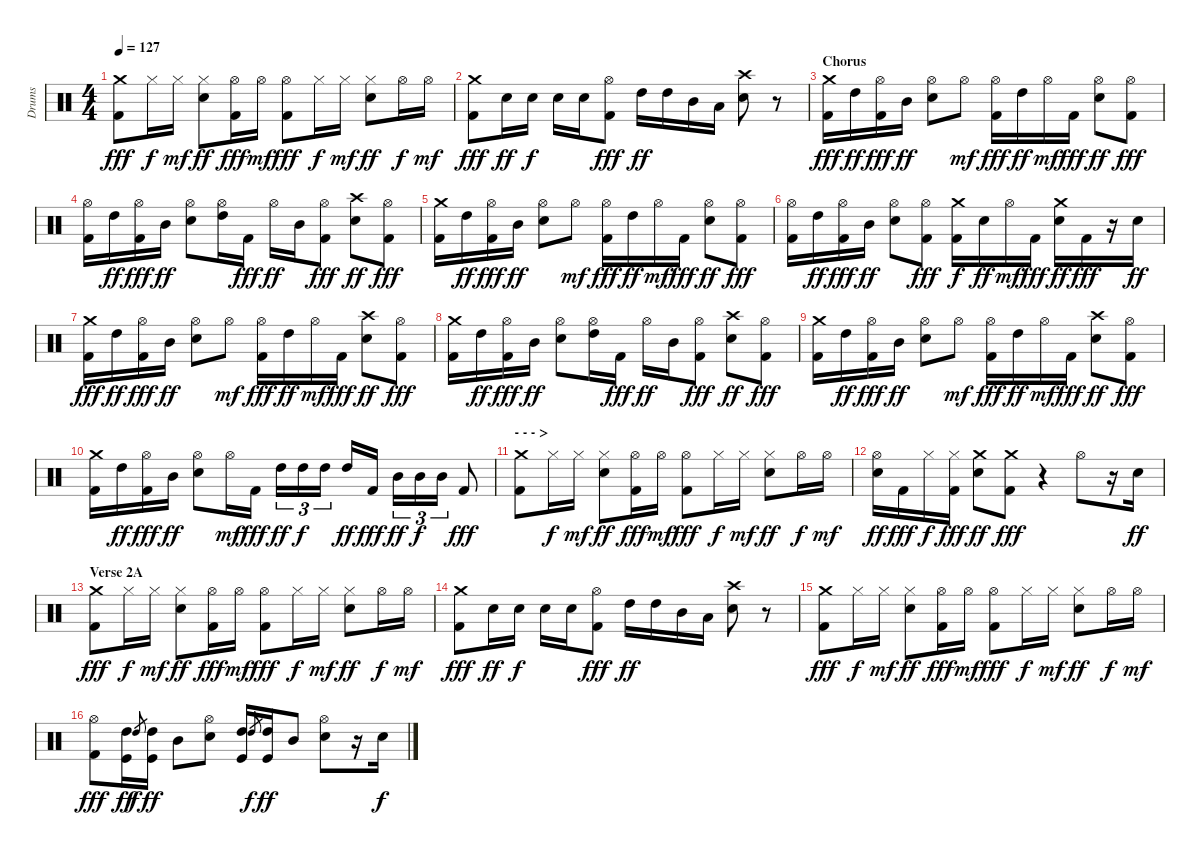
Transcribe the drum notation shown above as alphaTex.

\track ("Drums" "Drums") {instrument percussion}
\staff {score}
\articulation defaults
\ts (4 4)
\tempo 127
\clef neutral
\ks c
("Crash medium (hit)" "Kick (hit) 2").8{dy fff} "Hi-Hat (closed)".16{dy f} "Hi-Hat (closed)".16{dy mf} ("Hi-Hat (closed)" "Snare (hit) 2").8{dy ff} ("Hi-Hat (open)" "Kick (hit) 2").16{dy fff} "Hi-Hat (open)".16{dy mf} ("Hi-Hat (open)" "Kick (hit) 2").8{dy fff} "Hi-Hat (closed)".16{dy f} "Hi-Hat (closed)".16{dy mf} ("Hi-Hat (closed)" "Snare (hit) 2").8{dy ff} "Hi-Hat (open)".16{dy f} "Hi-Hat (open)".16{dy mf} |
("Crash medium (hit)" "Kick (hit) 2").8{dy fff} "Snare (hit) 2".16{dy ff} "Snare (hit) 2".16{dy f} "Snare (hit) 2".16 "Snare (hit) 2".16 ("Hi-Hat (open)" "Kick (hit) 2").8{dy fff} "High Tom (hit)".16{dy ff} "High Tom (hit)".16 "Mid Tom (hit)".16 "Low Tom (hit)".16 ("Crash high (hit)" "Snare (hit) 2").8 r.8 |
\section ("" "Chorus")
("Crash medium (hit)" "Kick (hit) 2").16{dy fff} "High Tom (hit)".16{dy ff} ("Hi-Hat (open)" "Kick (hit) 2").16{dy fff} "Mid Tom (hit)".16{dy ff} ("Hi-Hat (open)" "Snare (hit) 2").8 "Hi-Hat (open)".8{dy mf} ("Hi-Hat (open)" "Kick (hit) 2").16{dy fff} "High Tom (hit)".16{dy ff} "Hi-Hat (open)".16{dy mf} "Kick (hit) 2".16{dy fff} ("Hi-Hat (open)" "Snare (hit) 2").8{dy ff} ("Hi-Hat (open)" "Kick (hit) 2").8{dy fff} |
("Hi-Hat (open)" "Kick (hit) 2").16 "High Tom (hit)".16{dy ff} ("Hi-Hat (open)" "Kick (hit) 2").16{dy fff} "Mid Tom (hit)".16{dy ff} ("Hi-Hat (open)" "Snare (hit) 2").8 ("Hi-Hat (open)" "High Tom (hit)").16 "Kick (hit) 2".16{dy fff} "Hi-Hat (open)".16{dy ff} "Mid Tom (hit)".16 ("Hi-Hat (open)" "Kick (hit) 2").8{dy fff} ("Crash high (hit)" "Snare (hit) 2").8{dy ff} ("Hi-Hat (open)" "Kick (hit) 2").8{dy fff} |
("Crash medium (hit)" "Kick (hit) 2").16 "High Tom (hit)".16{dy ff} ("Hi-Hat (open)" "Kick (hit) 2").16{dy fff} "Mid Tom (hit)".16{dy ff} ("Hi-Hat (open)" "Snare (hit) 2").8 "Hi-Hat (open)".8{dy mf} ("Hi-Hat (open)" "Kick (hit) 2").16{dy fff} "High Tom (hit)".16{dy ff} "Hi-Hat (open)".16{dy mf} "Kick (hit) 2".16{dy fff} ("Hi-Hat (open)" "Snare (hit) 2").8{dy ff} ("Hi-Hat (open)" "Kick (hit) 2").8{dy fff} |
("Hi-Hat (open)" "Kick (hit) 2").16 "High Tom (hit)".16{dy ff} ("Hi-Hat (open)" "Kick (hit) 2").16{dy fff} "Mid Tom (hit)".16{dy ff} ("Hi-Hat (open)" "Snare (hit) 2").8 ("Hi-Hat (open)" "Kick (hit) 2").8{dy fff} ("Crash medium (hit)" "Kick (hit) 2").16{dy f} "Snare (hit) 2".16{dy ff} "Hi-Hat (open)".16{dy mf} "Kick (hit) 2".16{dy fff} ("Crash medium (hit)" "Snare (hit) 2").16{dy ff} "Kick (hit) 2".16{dy fff} r.16 "Snare (hit) 2".16{dy ff} |
("Crash medium (hit)" "Kick (hit) 2").16{dy fff} "High Tom (hit)".16{dy ff} ("Hi-Hat (open)" "Kick (hit) 2").16{dy fff} "Mid Tom (hit)".16{dy ff} ("Hi-Hat (open)" "Snare (hit) 2").8 "Hi-Hat (open)".8{dy mf} ("Hi-Hat (open)" "Kick (hit) 2").16{dy fff} "High Tom (hit)".16{dy ff} "Hi-Hat (open)".16{dy mf} "Kick (hit) 2".16{dy fff} ("Crash high (hit)" "Snare (hit) 2").8{dy ff} ("Hi-Hat (open)" "Kick (hit) 2").8{dy fff} |
("Crash medium (hit)" "Kick (hit) 2").16 "High Tom (hit)".16{dy ff} ("Hi-Hat (open)" "Kick (hit) 2").16{dy fff} "Mid Tom (hit)".16{dy ff} ("Hi-Hat (open)" "Snare (hit) 2").8 ("Hi-Hat (open)" "High Tom (hit)").16 "Kick (hit) 2".16{dy fff} "Hi-Hat (open)".16{dy ff} "Mid Tom (hit)".16 ("Hi-Hat (open)" "Kick (hit) 2").8{dy fff} ("Crash high (hit)" "Snare (hit) 2").8{dy ff} ("Hi-Hat (open)" "Kick (hit) 2").8{dy fff} |
("Crash medium (hit)" "Kick (hit) 2").16 "High Tom (hit)".16{dy ff} ("Hi-Hat (open)" "Kick (hit) 2").16{dy fff} "Mid Tom (hit)".16{dy ff} ("Hi-Hat (open)" "Snare (hit) 2").8 "Hi-Hat (open)".8{dy mf} ("Hi-Hat (open)" "Kick (hit) 2").16{dy fff} "High Tom (hit)".16{dy ff} "Hi-Hat (open)".16{dy mf} "Kick (hit) 2".16{dy fff} ("Crash high (hit)" "Snare (hit) 2").8{dy ff} ("Hi-Hat (open)" "Kick (hit) 2").8{dy fff} |
("Crash medium (hit)" "Kick (hit) 2").16 "High Tom (hit)".16{dy ff} ("Hi-Hat (open)" "Kick (hit) 2").16{dy fff} "Mid Tom (hit)".16{dy ff} ("Hi-Hat (open)" "Snare (hit) 2").8 "Hi-Hat (open)".16{dy mf} "Kick (hit) 2".16{dy fff} "High Tom (hit)".16{tu (3 2) dy ff} "High Tom (hit)".16{tu (3 2) dy f} "High Tom (hit)".16{tu (3 2)} "High Tom (hit)".16{dy ff} "Kick (hit) 2".16{dy fff} "Mid Tom (hit)".16{tu (3 2) dy ff} "Mid Tom (hit)".16{tu (3 2) dy f} "Mid Tom (hit)".16{tu (3 2)} "Kick (hit) 2".8{dy fff} |
\section ("" "- - - >")
("Crash medium (hit)" "Kick (hit) 2").8 "Hi-Hat (closed)".16{dy f} "Hi-Hat (closed)".16{dy mf} ("Hi-Hat (closed)" "Snare (hit) 2").8{dy ff} ("Hi-Hat (open)" "Kick (hit) 2").16{dy fff} "Hi-Hat (open)".16{dy mf} ("Hi-Hat (open)" "Kick (hit) 2").8{dy fff} "Hi-Hat (closed)".16{dy f} "Hi-Hat (closed)".16{dy mf} ("Hi-Hat (closed)" "Snare (hit) 2").8{dy ff} "Hi-Hat (open)".16{dy f} "Hi-Hat (open)".16{dy mf} |
("Hi-Hat (open)" "Snare (hit) 2").16{dy ff} "Kick (hit) 2".16{dy fff} "Hi-Hat (closed)".16{dy f} ("Hi-Hat (closed)" "Kick (hit) 2").16{dy fff} ("Crash medium (hit)" "Snare (hit) 2").8{dy ff} ("Crash medium (hit)" "Kick (hit) 2").8{dy fff} r.4 "Hi-Hat (open)".8 r.16 "Snare (hit) 2".16{dy ff} |
\section ("" "Verse 2A")
("Crash medium (hit)" "Kick (hit) 2").8{dy fff} "Hi-Hat (closed)".16{dy f} "Hi-Hat (closed)".16{dy mf} ("Hi-Hat (closed)" "Snare (hit) 2").8{dy ff} ("Hi-Hat (open)" "Kick (hit) 2").16{dy fff} "Hi-Hat (open)".16{dy mf} ("Hi-Hat (open)" "Kick (hit) 2").8{dy fff} "Hi-Hat (closed)".16{dy f} "Hi-Hat (closed)".16{dy mf} ("Hi-Hat (closed)" "Snare (hit) 2").8{dy ff} "Hi-Hat (open)".16{dy f} "Hi-Hat (open)".16{dy mf} |
("Crash medium (hit)" "Kick (hit) 2").8{dy fff} "Snare (hit) 2".16{dy ff} "Snare (hit) 2".16{dy f} "Snare (hit) 2".16 "Snare (hit) 2".16 ("Hi-Hat (open)" "Kick (hit) 2").8{dy fff} "High Tom (hit)".16{dy ff} "High Tom (hit)".16 "Mid Tom (hit)".16 "Low Tom (hit)".16 ("Crash high (hit)" "Snare (hit) 2").8 r.8 |
("Crash medium (hit)" "Kick (hit) 2").8{dy fff} "Hi-Hat (closed)".16{dy f} "Hi-Hat (closed)".16{dy mf} ("Hi-Hat (closed)" "Snare (hit) 2").8{dy ff} ("Hi-Hat (open)" "Kick (hit) 2").16{dy fff} "Hi-Hat (open)".16{dy mf} ("Hi-Hat (open)" "Kick (hit) 2").8{dy fff} "Hi-Hat (closed)".16{dy f} "Hi-Hat (closed)".16{dy mf} ("Hi-Hat (closed)" "Snare (hit) 2").8{dy ff} "Hi-Hat (open)".16{dy f} "Hi-Hat (open)".16{dy mf} |
("Hi-Hat (open)" "Kick (hit) 2").8{dy fff} ("High Tom (hit)" "Kick (hit)").16{dy ff} "High Tom (hit)".8{gr dy f} ("High Tom (hit)" "Kick (hit)").16{dy ff} "Mid Tom (hit)".8 ("Hi-Hat (open)" "Snare (hit) 2").8 ("High Tom (hit)" "Kick (hit)").16 "High Tom (hit)".8{gr dy f} ("High Tom (hit)" "Kick (hit)").16{dy ff} "Mid Tom (hit)".8 ("Hi-Hat (open)" "Snare (hit) 2").8 r.16 "Snare (hit) 2".16{dy f}
